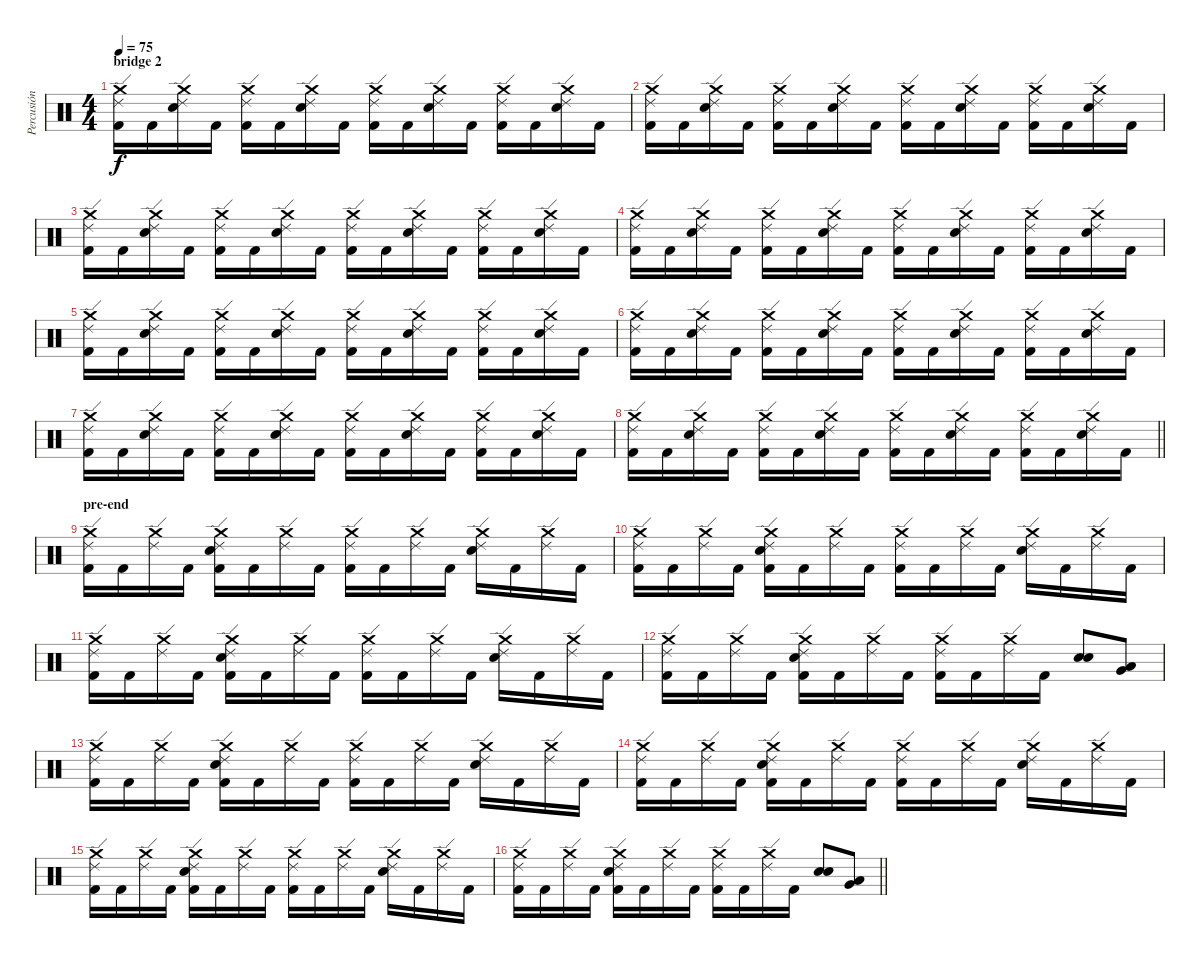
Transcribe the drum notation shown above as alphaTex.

\track ("Percusión" "Percusión") {instrument percussion}
\staff {score}
\articulation defaults
\ts (4 4)
\section ("" "bridge 2")
\tempo 75
\clef neutral
\ks c
("Kick (hit) 2" "Ride (edge) 2" "Crash medium (hit)").16{dy f} "Kick (hit) 2".16 ("Electric Snare (hit)" "Ride (edge) 2" "Crash medium (hit)").16 "Kick (hit) 2".16 ("Kick (hit) 2" "Ride (edge) 2" "Crash medium (hit)").16 "Kick (hit) 2".16 ("Electric Snare (hit)" "Ride (edge) 2" "Crash medium (hit)").16 "Kick (hit) 2".16 ("Kick (hit) 2" "Ride (edge) 2" "Crash medium (hit)").16 "Kick (hit) 2".16 ("Electric Snare (hit)" "Ride (edge) 2" "Crash medium (hit)").16 "Kick (hit) 2".16 ("Kick (hit) 2" "Ride (edge) 2" "Crash medium (hit)").16 "Kick (hit) 2".16 ("Electric Snare (hit)" "Ride (edge) 2" "Crash medium (hit)").16 "Kick (hit) 2".16 |
("Kick (hit) 2" "Ride (edge) 2" "Crash medium (hit)").16 "Kick (hit) 2".16 ("Electric Snare (hit)" "Ride (edge) 2" "Crash medium (hit)").16 "Kick (hit) 2".16 ("Kick (hit) 2" "Ride (edge) 2" "Crash medium (hit)").16 "Kick (hit) 2".16 ("Electric Snare (hit)" "Ride (edge) 2" "Crash medium (hit)").16 "Kick (hit) 2".16 ("Kick (hit) 2" "Ride (edge) 2" "Crash medium (hit)").16 "Kick (hit) 2".16 ("Electric Snare (hit)" "Ride (edge) 2" "Crash medium (hit)").16 "Kick (hit) 2".16 ("Kick (hit) 2" "Ride (edge) 2" "Crash medium (hit)").16 "Kick (hit) 2".16 ("Electric Snare (hit)" "Ride (edge) 2" "Crash medium (hit)").16 "Kick (hit) 2".16 |
("Kick (hit) 2" "Ride (edge) 2" "Crash medium (hit)").16 "Kick (hit) 2".16 ("Electric Snare (hit)" "Ride (edge) 2" "Crash medium (hit)").16 "Kick (hit) 2".16 ("Kick (hit) 2" "Ride (edge) 2" "Crash medium (hit)").16 "Kick (hit) 2".16 ("Electric Snare (hit)" "Ride (edge) 2" "Crash medium (hit)").16 "Kick (hit) 2".16 ("Kick (hit) 2" "Ride (edge) 2" "Crash medium (hit)").16 "Kick (hit) 2".16 ("Electric Snare (hit)" "Ride (edge) 2" "Crash medium (hit)").16 "Kick (hit) 2".16 ("Kick (hit) 2" "Ride (edge) 2" "Crash medium (hit)").16 "Kick (hit) 2".16 ("Electric Snare (hit)" "Ride (edge) 2" "Crash medium (hit)").16 "Kick (hit) 2".16 |
("Kick (hit) 2" "Ride (edge) 2" "Crash medium (hit)").16 "Kick (hit) 2".16 ("Electric Snare (hit)" "Ride (edge) 2" "Crash medium (hit)").16 "Kick (hit) 2".16 ("Kick (hit) 2" "Ride (edge) 2" "Crash medium (hit)").16 "Kick (hit) 2".16 ("Electric Snare (hit)" "Ride (edge) 2" "Crash medium (hit)").16 "Kick (hit) 2".16 ("Kick (hit) 2" "Ride (edge) 2" "Crash medium (hit)").16 "Kick (hit) 2".16 ("Electric Snare (hit)" "Ride (edge) 2" "Crash medium (hit)").16 "Kick (hit) 2".16 ("Kick (hit) 2" "Ride (edge) 2" "Crash medium (hit)").16 "Kick (hit) 2".16 ("Electric Snare (hit)" "Ride (edge) 2" "Crash medium (hit)").16 "Kick (hit) 2".16 |
("Kick (hit) 2" "Ride (edge) 2" "Crash medium (hit)").16 "Kick (hit) 2".16 ("Electric Snare (hit)" "Ride (edge) 2" "Crash medium (hit)").16 "Kick (hit) 2".16 ("Kick (hit) 2" "Ride (edge) 2" "Crash medium (hit)").16 "Kick (hit) 2".16 ("Electric Snare (hit)" "Ride (edge) 2" "Crash medium (hit)").16 "Kick (hit) 2".16 ("Kick (hit) 2" "Ride (edge) 2" "Crash medium (hit)").16 "Kick (hit) 2".16 ("Electric Snare (hit)" "Ride (edge) 2" "Crash medium (hit)").16 "Kick (hit) 2".16 ("Kick (hit) 2" "Ride (edge) 2" "Crash medium (hit)").16 "Kick (hit) 2".16 ("Electric Snare (hit)" "Ride (edge) 2" "Crash medium (hit)").16 "Kick (hit) 2".16 |
("Kick (hit) 2" "Ride (edge) 2" "Crash medium (hit)").16 "Kick (hit) 2".16 ("Electric Snare (hit)" "Ride (edge) 2" "Crash medium (hit)").16 "Kick (hit) 2".16 ("Kick (hit) 2" "Ride (edge) 2" "Crash medium (hit)").16 "Kick (hit) 2".16 ("Electric Snare (hit)" "Ride (edge) 2" "Crash medium (hit)").16 "Kick (hit) 2".16 ("Kick (hit) 2" "Ride (edge) 2" "Crash medium (hit)").16 "Kick (hit) 2".16 ("Electric Snare (hit)" "Ride (edge) 2" "Crash medium (hit)").16 "Kick (hit) 2".16 ("Kick (hit) 2" "Ride (edge) 2" "Crash medium (hit)").16 "Kick (hit) 2".16 ("Electric Snare (hit)" "Ride (edge) 2" "Crash medium (hit)").16 "Kick (hit) 2".16 |
("Kick (hit) 2" "Ride (edge) 2" "Crash medium (hit)").16 "Kick (hit) 2".16 ("Electric Snare (hit)" "Ride (edge) 2" "Crash medium (hit)").16 "Kick (hit) 2".16 ("Kick (hit) 2" "Ride (edge) 2" "Crash medium (hit)").16 "Kick (hit) 2".16 ("Electric Snare (hit)" "Ride (edge) 2" "Crash medium (hit)").16 "Kick (hit) 2".16 ("Kick (hit) 2" "Ride (edge) 2" "Crash medium (hit)").16 "Kick (hit) 2".16 ("Electric Snare (hit)" "Ride (edge) 2" "Crash medium (hit)").16 "Kick (hit) 2".16 ("Kick (hit) 2" "Ride (edge) 2" "Crash medium (hit)").16 "Kick (hit) 2".16 ("Electric Snare (hit)" "Ride (edge) 2" "Crash medium (hit)").16 "Kick (hit) 2".16 |
\barLineRight lightlight
("Kick (hit) 2" "Ride (edge) 2" "Crash medium (hit)").16 "Kick (hit) 2".16 ("Electric Snare (hit)" "Ride (edge) 2" "Crash medium (hit)").16 "Kick (hit) 2".16 ("Kick (hit) 2" "Ride (edge) 2" "Crash medium (hit)").16 "Kick (hit) 2".16 ("Electric Snare (hit)" "Ride (edge) 2" "Crash medium (hit)").16 "Kick (hit) 2".16 ("Kick (hit) 2" "Ride (edge) 2" "Crash medium (hit)").16 "Kick (hit) 2".16 ("Electric Snare (hit)" "Ride (edge) 2" "Crash medium (hit)").16 "Kick (hit) 2".16 ("Kick (hit) 2" "Ride (edge) 2" "Crash medium (hit)").16 "Kick (hit) 2".16 ("Electric Snare (hit)" "Ride (edge) 2" "Crash medium (hit)").16 "Kick (hit) 2".16 |
\section ("" "pre-end")
("Kick (hit) 2" "Ride (edge) 2" "Crash medium (hit)").16 "Kick (hit) 2".16 ("Ride (edge) 2" "Crash medium (hit)").16 "Kick (hit) 2".16 ("Kick (hit) 2" "Electric Snare (hit)" "Ride (edge) 2" "Crash medium (hit)").16 "Kick (hit) 2".16 ("Ride (edge) 2" "Crash medium (hit)").16 "Kick (hit) 2".16 ("Kick (hit) 2" "Ride (edge) 2" "Crash medium (hit)").16 "Kick (hit) 2".16 ("Ride (edge) 2" "Crash medium (hit)").16 "Kick (hit) 2".16 ("Electric Snare (hit)" "Ride (edge) 2" "Crash medium (hit)").16 "Kick (hit) 2".16 ("Ride (edge) 2" "Crash medium (hit)").16 "Kick (hit) 2".16 |
("Kick (hit) 2" "Ride (edge) 2" "Crash medium (hit)").16 "Kick (hit) 2".16 ("Ride (edge) 2" "Crash medium (hit)").16 "Kick (hit) 2".16 ("Kick (hit) 2" "Electric Snare (hit)" "Ride (edge) 2" "Crash medium (hit)").16 "Kick (hit) 2".16 ("Ride (edge) 2" "Crash medium (hit)").16 "Kick (hit) 2".16 ("Kick (hit) 2" "Ride (edge) 2" "Crash medium (hit)").16 "Kick (hit) 2".16 ("Ride (edge) 2" "Crash medium (hit)").16 "Kick (hit) 2".16 ("Electric Snare (hit)" "Ride (edge) 2" "Crash medium (hit)").16 "Kick (hit) 2".16 ("Ride (edge) 2" "Crash medium (hit)").16 "Kick (hit) 2".16 |
("Kick (hit) 2" "Ride (edge) 2" "Crash medium (hit)").16 "Kick (hit) 2".16 ("Ride (edge) 2" "Crash medium (hit)").16 "Kick (hit) 2".16 ("Kick (hit) 2" "Electric Snare (hit)" "Ride (edge) 2" "Crash medium (hit)").16 "Kick (hit) 2".16 ("Ride (edge) 2" "Crash medium (hit)").16 "Kick (hit) 2".16 ("Kick (hit) 2" "Ride (edge) 2" "Crash medium (hit)").16 "Kick (hit) 2".16 ("Ride (edge) 2" "Crash medium (hit)").16 "Kick (hit) 2".16 ("Electric Snare (hit)" "Ride (edge) 2" "Crash medium (hit)").16 "Kick (hit) 2".16 ("Ride (edge) 2" "Crash medium (hit)").16 "Kick (hit) 2".16 |
("Kick (hit) 2" "Ride (edge) 2" "Crash medium (hit)").16 "Kick (hit) 2".16 ("Ride (edge) 2" "Crash medium (hit)").16 "Kick (hit) 2".16 ("Kick (hit) 2" "Electric Snare (hit)" "Ride (edge) 2" "Crash medium (hit)").16 "Kick (hit) 2".16 ("Ride (edge) 2" "Crash medium (hit)").16 "Kick (hit) 2".16 ("Kick (hit) 2" "Ride (edge) 2" "Crash medium (hit)").16 "Kick (hit) 2".16 ("Ride (edge) 2" "Crash medium (hit)").16 "Kick (hit) 2".16 ("Snare (hit) 2" "Electric Snare (hit)").8 ("Very Low Tom (hit)" "Low Tom (hit)").8 |
("Kick (hit) 2" "Ride (edge) 2" "Crash medium (hit)").16 "Kick (hit) 2".16 ("Ride (edge) 2" "Crash medium (hit)").16 "Kick (hit) 2".16 ("Kick (hit) 2" "Electric Snare (hit)" "Ride (edge) 2" "Crash medium (hit)").16 "Kick (hit) 2".16 ("Ride (edge) 2" "Crash medium (hit)").16 "Kick (hit) 2".16 ("Kick (hit) 2" "Ride (edge) 2" "Crash medium (hit)").16 "Kick (hit) 2".16 ("Ride (edge) 2" "Crash medium (hit)").16 "Kick (hit) 2".16 ("Electric Snare (hit)" "Ride (edge) 2" "Crash medium (hit)").16 "Kick (hit) 2".16 ("Ride (edge) 2" "Crash medium (hit)").16 "Kick (hit) 2".16 |
("Kick (hit) 2" "Ride (edge) 2" "Crash medium (hit)").16 "Kick (hit) 2".16 ("Ride (edge) 2" "Crash medium (hit)").16 "Kick (hit) 2".16 ("Kick (hit) 2" "Electric Snare (hit)" "Ride (edge) 2" "Crash medium (hit)").16 "Kick (hit) 2".16 ("Ride (edge) 2" "Crash medium (hit)").16 "Kick (hit) 2".16 ("Kick (hit) 2" "Ride (edge) 2" "Crash medium (hit)").16 "Kick (hit) 2".16 ("Ride (edge) 2" "Crash medium (hit)").16 "Kick (hit) 2".16 ("Electric Snare (hit)" "Ride (edge) 2" "Crash medium (hit)").16 "Kick (hit) 2".16 ("Ride (edge) 2" "Crash medium (hit)").16 "Kick (hit) 2".16 |
("Kick (hit) 2" "Ride (edge) 2" "Crash medium (hit)").16 "Kick (hit) 2".16 ("Ride (edge) 2" "Crash medium (hit)").16 "Kick (hit) 2".16 ("Kick (hit) 2" "Electric Snare (hit)" "Ride (edge) 2" "Crash medium (hit)").16 "Kick (hit) 2".16 ("Ride (edge) 2" "Crash medium (hit)").16 "Kick (hit) 2".16 ("Kick (hit) 2" "Ride (edge) 2" "Crash medium (hit)").16 "Kick (hit) 2".16 ("Ride (edge) 2" "Crash medium (hit)").16 "Kick (hit) 2".16 ("Electric Snare (hit)" "Ride (edge) 2" "Crash medium (hit)").16 "Kick (hit) 2".16 ("Ride (edge) 2" "Crash medium (hit)").16 "Kick (hit) 2".16 |
\barLineRight lightlight
("Kick (hit) 2" "Ride (edge) 2" "Crash medium (hit)").16 "Kick (hit) 2".16 ("Ride (edge) 2" "Crash medium (hit)").16 "Kick (hit) 2".16 ("Kick (hit) 2" "Electric Snare (hit)" "Ride (edge) 2" "Crash medium (hit)").16 "Kick (hit) 2".16 ("Ride (edge) 2" "Crash medium (hit)").16 "Kick (hit) 2".16 ("Kick (hit) 2" "Ride (edge) 2" "Crash medium (hit)").16 "Kick (hit) 2".16 ("Ride (edge) 2" "Crash medium (hit)").16 "Kick (hit) 2".16 ("Snare (hit) 2" "Electric Snare (hit)").8 ("Very Low Tom (hit)" "Low Tom (hit)").8
